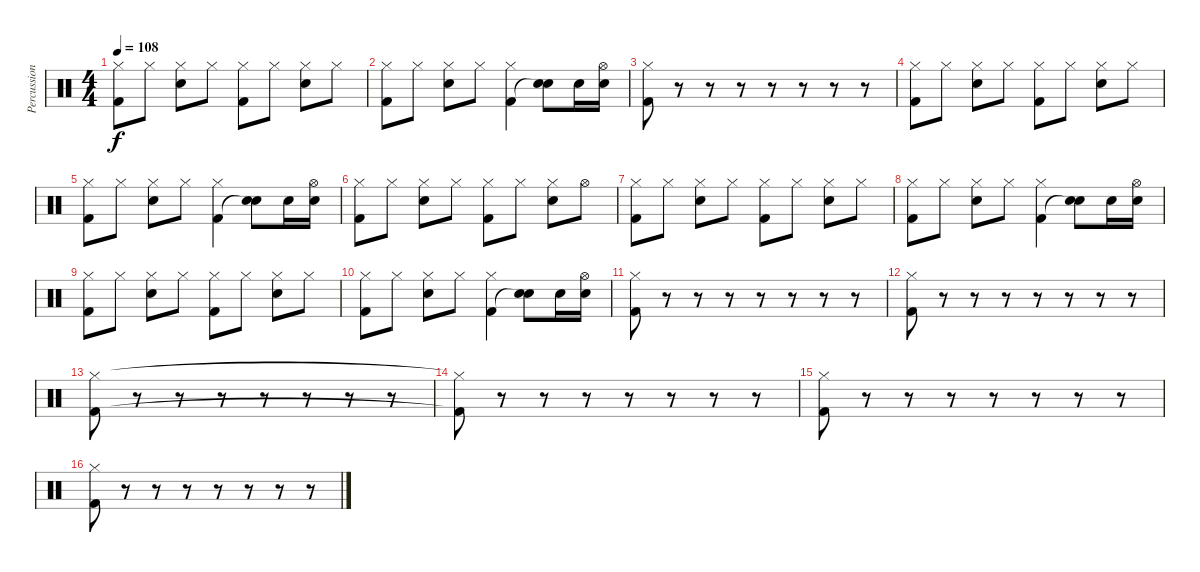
\track ("Percussion" "Percussion") {instrument percussion}
\staff {score}
\articulation defaults
\ts (4 4)
\tempo 108
\clef neutral
\ks c
("Hi-Hat (closed)" "Kick (hit) 2").8{dy f} "Hi-Hat (closed)".8 ("Hi-Hat (closed)" "Snare (hit) 2").8 "Hi-Hat (closed)".8 ("Hi-Hat (closed)" "Kick (hit) 2").8 "Hi-Hat (closed)".8 ("Hi-Hat (closed)" "Snare (hit) 2").8 "Hi-Hat (closed)".8 |
("Hi-Hat (closed)" "Kick (hit) 2").8 "Hi-Hat (closed)".8 ("Hi-Hat (closed)" "Snare (hit) 2").8 "Hi-Hat (closed)".8 ("Hi-Hat (closed)" "Kick (hit) 2").4 ("Snare (hit) 2" "Snare (hit)"{t}).8 "Snare (hit) 2".16 ("Hi-Hat (open)" "Snare (hit) 2").16 |
("Hi-Hat (closed)" "Kick (hit) 2").8 r.8 r.8 r.8 r.8 r.8 r.8 r.8 |
("Hi-Hat (closed)" "Kick (hit) 2").8 "Hi-Hat (closed)".8 ("Hi-Hat (closed)" "Snare (hit) 2").8 "Hi-Hat (closed)".8 ("Hi-Hat (closed)" "Kick (hit) 2").8 "Hi-Hat (closed)".8 ("Hi-Hat (closed)" "Snare (hit) 2").8 "Hi-Hat (closed)".8 |
("Hi-Hat (closed)" "Kick (hit) 2").8 "Hi-Hat (closed)".8 ("Hi-Hat (closed)" "Snare (hit) 2").8 "Hi-Hat (closed)".8 ("Hi-Hat (closed)" "Kick (hit) 2").4 ("Snare (hit) 2" "Snare (hit)"{t}).8 "Snare (hit) 2".16 ("Hi-Hat (open)" "Snare (hit) 2").16 |
("Hi-Hat (closed)" "Kick (hit) 2").8 "Hi-Hat (closed)".8 ("Hi-Hat (closed)" "Snare (hit) 2").8 "Hi-Hat (closed)".8 ("Hi-Hat (closed)" "Kick (hit) 2").8 "Hi-Hat (closed)".8 ("Hi-Hat (closed)" "Snare (hit) 2").8 "Hi-Hat (open)".8 |
("Hi-Hat (closed)" "Kick (hit) 2").8 "Hi-Hat (closed)".8 ("Hi-Hat (closed)" "Snare (hit) 2").8 "Hi-Hat (closed)".8 ("Hi-Hat (closed)" "Kick (hit) 2").8 "Hi-Hat (closed)".8 ("Hi-Hat (closed)" "Snare (hit) 2").8 "Hi-Hat (closed)".8 |
("Hi-Hat (closed)" "Kick (hit) 2").8 "Hi-Hat (closed)".8 ("Hi-Hat (closed)" "Snare (hit) 2").8 "Hi-Hat (closed)".8 ("Hi-Hat (closed)" "Kick (hit) 2").4 ("Snare (hit) 2" "Snare (hit)"{t}).8 "Snare (hit) 2".16 ("Hi-Hat (open)" "Snare (hit) 2").16 |
("Hi-Hat (closed)" "Kick (hit) 2").8 "Hi-Hat (closed)".8 ("Hi-Hat (closed)" "Snare (hit) 2").8 "Hi-Hat (closed)".8 ("Hi-Hat (closed)" "Kick (hit) 2").8 "Hi-Hat (closed)".8 ("Hi-Hat (closed)" "Snare (hit) 2").8 "Hi-Hat (closed)".8 |
("Hi-Hat (closed)" "Kick (hit) 2").8 "Hi-Hat (closed)".8 ("Hi-Hat (closed)" "Snare (hit) 2").8 "Hi-Hat (closed)".8 ("Hi-Hat (closed)" "Kick (hit) 2").4 ("Snare (hit) 2" "Snare (hit)"{t}).8 "Snare (hit) 2".16 ("Hi-Hat (open)" "Snare (hit) 2").16 |
("Hi-Hat (closed)" "Kick (hit) 2").8 r.8 r.8 r.8 r.8 r.8 r.8 r.8 |
("Hi-Hat (closed)" "Kick (hit) 2").8 r.8 r.8 r.8 r.8 r.8 r.8 r.8 |
("Hi-Hat (closed)" "Kick (hit) 2").8 r.8 r.8 r.8 r.8 r.8 r.8 r.8 |
("Hi-Hat (closed)"{t} "Kick (hit) 2"{t}).8 r.8 r.8 r.8 r.8 r.8 r.8 r.8 |
("Hi-Hat (closed)" "Kick (hit) 2").8 r.8 r.8 r.8 r.8 r.8 r.8 r.8 |
("Hi-Hat (closed)" "Kick (hit) 2").8 r.8 r.8 r.8 r.8 r.8 r.8 r.8
